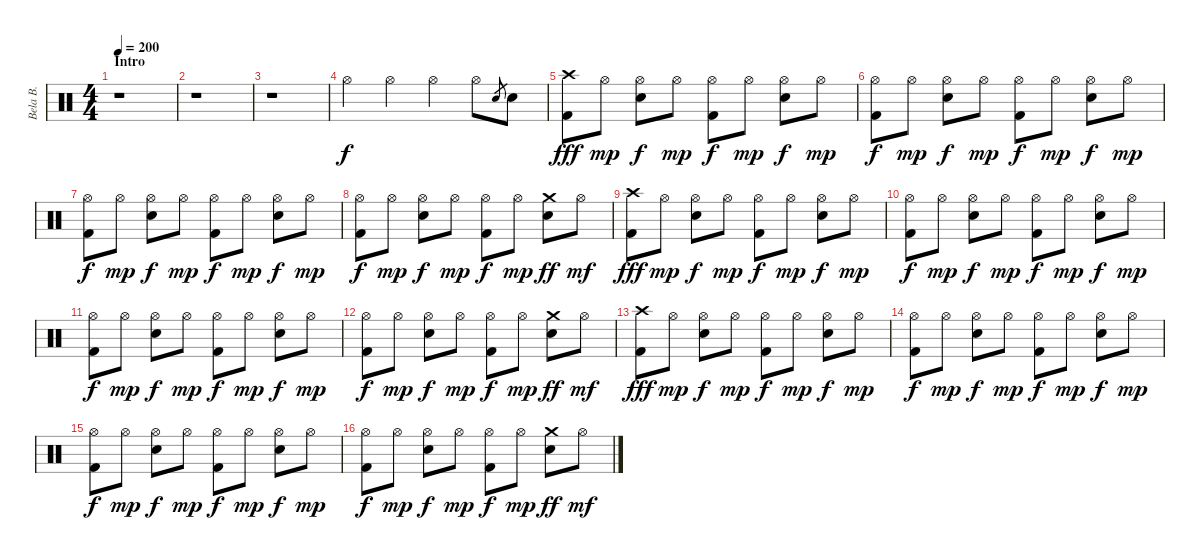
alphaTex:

\track ("Bela B. " "Bela B. ") {instrument percussion}
\staff {score}
\articulation defaults
\ts (4 4)
\section ("" "Intro")
\tempo 200
\clef neutral
\ks c
r.1{dy f} |
r.1 |
r.1 |
"Hi-Hat (open)".4 "Hi-Hat (open)".4 "Hi-Hat (open)".4 "Hi-Hat (open)".8 "Snare (hit) 2".8{gr} "Snare (hit) 2".8 |
("Crash high (hit)" "Kick (hit) 2").8{dy fff} "Hi-Hat (open)".8{dy mp} ("Hi-Hat (open)" "Snare (hit) 2").8{dy f} "Hi-Hat (open)".8{dy mp} ("Hi-Hat (open)" "Kick (hit) 2").8{dy f} "Hi-Hat (open)".8{dy mp} ("Hi-Hat (open)" "Snare (hit) 2").8{dy f} "Hi-Hat (open)".8{dy mp} |
("Hi-Hat (open)" "Kick (hit) 2").8{dy f} "Hi-Hat (open)".8{dy mp} ("Hi-Hat (open)" "Snare (hit) 2").8{dy f} "Hi-Hat (open)".8{dy mp} ("Hi-Hat (open)" "Kick (hit) 2").8{dy f} "Hi-Hat (open)".8{dy mp} ("Hi-Hat (open)" "Snare (hit) 2").8{dy f} "Hi-Hat (open)".8{dy mp} |
("Hi-Hat (open)" "Kick (hit) 2").8{dy f} "Hi-Hat (open)".8{dy mp} ("Hi-Hat (open)" "Snare (hit) 2").8{dy f} "Hi-Hat (open)".8{dy mp} ("Hi-Hat (open)" "Kick (hit) 2").8{dy f} "Hi-Hat (open)".8{dy mp} ("Hi-Hat (open)" "Snare (hit) 2").8{dy f} "Hi-Hat (open)".8{dy mp} |
("Hi-Hat (open)" "Kick (hit) 2").8{dy f} "Hi-Hat (open)".8{dy mp} ("Hi-Hat (open)" "Snare (hit) 2").8{dy f} "Hi-Hat (open)".8{dy mp} ("Hi-Hat (open)" "Kick (hit) 2").8{dy f} "Hi-Hat (open)".8{dy mp} ("Crash medium (hit)" "Snare (hit) 2").8{dy ff} "Hi-Hat (open)".8{dy mf} |
("Crash high (hit)" "Kick (hit) 2").8{dy fff} "Hi-Hat (open)".8{dy mp} ("Hi-Hat (open)" "Snare (hit) 2").8{dy f} "Hi-Hat (open)".8{dy mp} ("Hi-Hat (open)" "Kick (hit) 2").8{dy f} "Hi-Hat (open)".8{dy mp} ("Hi-Hat (open)" "Snare (hit) 2").8{dy f} "Hi-Hat (open)".8{dy mp} |
("Hi-Hat (open)" "Kick (hit) 2").8{dy f} "Hi-Hat (open)".8{dy mp} ("Hi-Hat (open)" "Snare (hit) 2").8{dy f} "Hi-Hat (open)".8{dy mp} ("Hi-Hat (open)" "Kick (hit) 2").8{dy f} "Hi-Hat (open)".8{dy mp} ("Hi-Hat (open)" "Snare (hit) 2").8{dy f} "Hi-Hat (open)".8{dy mp} |
("Hi-Hat (open)" "Kick (hit) 2").8{dy f} "Hi-Hat (open)".8{dy mp} ("Hi-Hat (open)" "Snare (hit) 2").8{dy f} "Hi-Hat (open)".8{dy mp} ("Hi-Hat (open)" "Kick (hit) 2").8{dy f} "Hi-Hat (open)".8{dy mp} ("Hi-Hat (open)" "Snare (hit) 2").8{dy f} "Hi-Hat (open)".8{dy mp} |
("Hi-Hat (open)" "Kick (hit) 2").8{dy f} "Hi-Hat (open)".8{dy mp} ("Hi-Hat (open)" "Snare (hit) 2").8{dy f} "Hi-Hat (open)".8{dy mp} ("Hi-Hat (open)" "Kick (hit) 2").8{dy f} "Hi-Hat (open)".8{dy mp} ("Crash medium (hit)" "Snare (hit) 2").8{dy ff} "Hi-Hat (open)".8{dy mf} |
("Crash high (hit)" "Kick (hit) 2").8{dy fff} "Hi-Hat (open)".8{dy mp} ("Hi-Hat (open)" "Snare (hit) 2").8{dy f} "Hi-Hat (open)".8{dy mp} ("Hi-Hat (open)" "Kick (hit) 2").8{dy f} "Hi-Hat (open)".8{dy mp} ("Hi-Hat (open)" "Snare (hit) 2").8{dy f} "Hi-Hat (open)".8{dy mp} |
("Hi-Hat (open)" "Kick (hit) 2").8{dy f} "Hi-Hat (open)".8{dy mp} ("Hi-Hat (open)" "Snare (hit) 2").8{dy f} "Hi-Hat (open)".8{dy mp} ("Hi-Hat (open)" "Kick (hit) 2").8{dy f} "Hi-Hat (open)".8{dy mp} ("Hi-Hat (open)" "Snare (hit) 2").8{dy f} "Hi-Hat (open)".8{dy mp} |
("Hi-Hat (open)" "Kick (hit) 2").8{dy f} "Hi-Hat (open)".8{dy mp} ("Hi-Hat (open)" "Snare (hit) 2").8{dy f} "Hi-Hat (open)".8{dy mp} ("Hi-Hat (open)" "Kick (hit) 2").8{dy f} "Hi-Hat (open)".8{dy mp} ("Hi-Hat (open)" "Snare (hit) 2").8{dy f} "Hi-Hat (open)".8{dy mp} |
("Hi-Hat (open)" "Kick (hit) 2").8{dy f} "Hi-Hat (open)".8{dy mp} ("Hi-Hat (open)" "Snare (hit) 2").8{dy f} "Hi-Hat (open)".8{dy mp} ("Hi-Hat (open)" "Kick (hit) 2").8{dy f} "Hi-Hat (open)".8{dy mp} ("Crash medium (hit)" "Snare (hit) 2").8{dy ff} "Hi-Hat (open)".8{dy mf}
